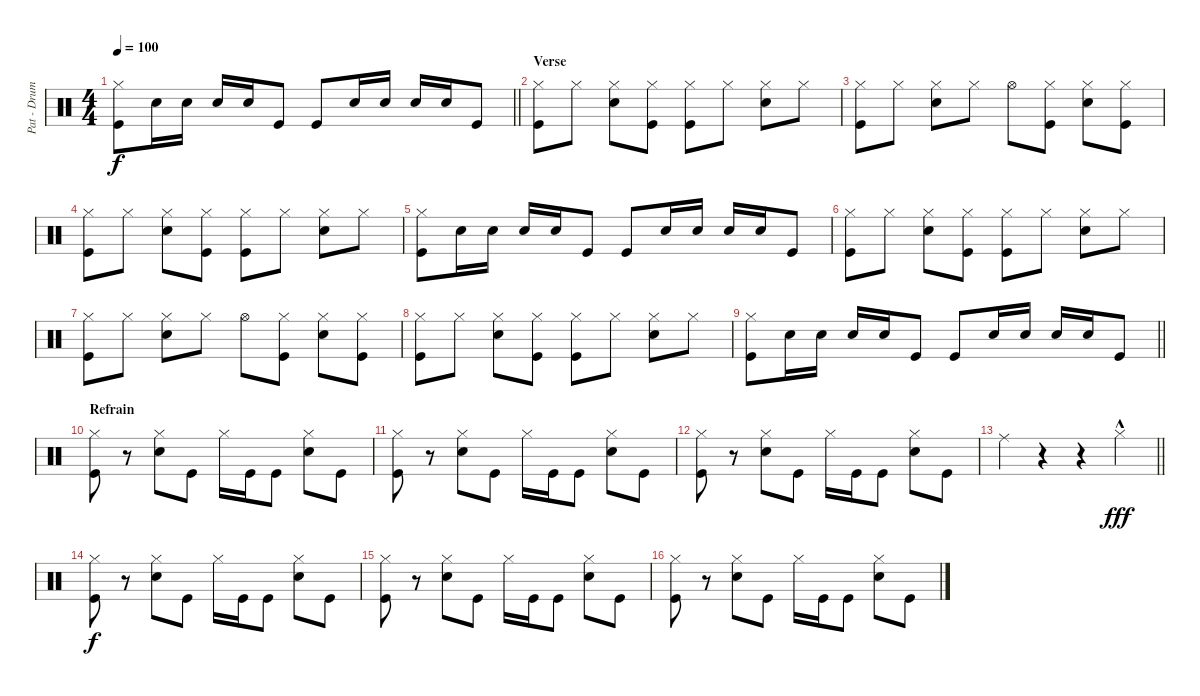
\track ("Pat - Drums" "Pat - Drum") {instrument percussion}
\staff {score}
\articulation defaults
\ts (4 4)
\tempo 100
\clef neutral
\barLineRight lightlight
\ks c
("Hi-Hat (closed)" "Kick (hit)").8{dy f} "Electric Snare (hit)".16 "Electric Snare (hit)".16 "Electric Snare (hit)".16 "Electric Snare (hit)".16 "Kick (hit)".8 "Kick (hit)".8 "Electric Snare (hit)".16 "Electric Snare (hit)".16 "Electric Snare (hit)".16 "Electric Snare (hit)".16 "Kick (hit)".8 |
\section ("" "Verse")
("Hi-Hat (closed)" "Kick (hit)").8 "Hi-Hat (closed)".8 ("Hi-Hat (closed)" "Electric Snare (hit)").8 ("Hi-Hat (closed)" "Kick (hit)").8 ("Hi-Hat (closed)" "Kick (hit)").8 "Hi-Hat (closed)".8 ("Hi-Hat (closed)" "Electric Snare (hit)").8 "Hi-Hat (closed)".8 |
("Hi-Hat (closed)" "Kick (hit)").8 "Hi-Hat (closed)".8 ("Hi-Hat (closed)" "Electric Snare (hit)").8 "Hi-Hat (closed)".8 "Hi-Hat (open)".8 ("Hi-Hat (closed)" "Kick (hit)").8 ("Hi-Hat (closed)" "Electric Snare (hit)").8 ("Hi-Hat (closed)" "Kick (hit)").8 |
("Hi-Hat (closed)" "Kick (hit)").8 "Hi-Hat (closed)".8 ("Hi-Hat (closed)" "Electric Snare (hit)").8 ("Hi-Hat (closed)" "Kick (hit)").8 ("Hi-Hat (closed)" "Kick (hit)").8 "Hi-Hat (closed)".8 ("Hi-Hat (closed)" "Electric Snare (hit)").8 "Hi-Hat (closed)".8 |
("Hi-Hat (closed)" "Kick (hit)").8 "Electric Snare (hit)".16 "Electric Snare (hit)".16 "Electric Snare (hit)".16 "Electric Snare (hit)".16 "Kick (hit)".8 "Kick (hit)".8 "Electric Snare (hit)".16 "Electric Snare (hit)".16 "Electric Snare (hit)".16 "Electric Snare (hit)".16 "Kick (hit)".8 |
("Hi-Hat (closed)" "Kick (hit)").8 "Hi-Hat (closed)".8 ("Hi-Hat (closed)" "Electric Snare (hit)").8 ("Hi-Hat (closed)" "Kick (hit)").8 ("Hi-Hat (closed)" "Kick (hit)").8 "Hi-Hat (closed)".8 ("Hi-Hat (closed)" "Electric Snare (hit)").8 "Hi-Hat (closed)".8 |
("Hi-Hat (closed)" "Kick (hit)").8 "Hi-Hat (closed)".8 ("Hi-Hat (closed)" "Electric Snare (hit)").8 "Hi-Hat (closed)".8 "Hi-Hat (open)".8 ("Hi-Hat (closed)" "Kick (hit)").8 ("Hi-Hat (closed)" "Electric Snare (hit)").8 ("Hi-Hat (closed)" "Kick (hit)").8 |
("Hi-Hat (closed)" "Kick (hit)").8 "Hi-Hat (closed)".8 ("Hi-Hat (closed)" "Electric Snare (hit)").8 ("Hi-Hat (closed)" "Kick (hit)").8 ("Hi-Hat (closed)" "Kick (hit)").8 "Hi-Hat (closed)".8 ("Hi-Hat (closed)" "Electric Snare (hit)").8 "Hi-Hat (closed)".8 |
\barLineRight lightlight
("Hi-Hat (closed)" "Kick (hit)").8 "Electric Snare (hit)".16 "Electric Snare (hit)".16 "Electric Snare (hit)".16 "Electric Snare (hit)".16 "Kick (hit)".8 "Kick (hit)".8 "Electric Snare (hit)".16 "Electric Snare (hit)".16 "Electric Snare (hit)".16 "Electric Snare (hit)".16 "Kick (hit)".8 |
\section ("" "Refrain")
("Hi-Hat (closed)" "Kick (hit)").8 r.8 ("Hi-Hat (closed)" "Electric Snare (hit)").8 "Kick (hit)".8 "Hi-Hat (closed)".16 "Kick (hit)".16 "Kick (hit)".8 ("Hi-Hat (closed)" "Electric Snare (hit)").8 "Kick (hit)".8 |
("Hi-Hat (closed)" "Kick (hit)").8 r.8 ("Hi-Hat (closed)" "Electric Snare (hit)").8 "Kick (hit)".8 "Hi-Hat (closed)".16 "Kick (hit)".16 "Kick (hit)".8 ("Hi-Hat (closed)" "Electric Snare (hit)").8 "Kick (hit)".8 |
("Hi-Hat (closed)" "Kick (hit)").8 r.8 ("Hi-Hat (closed)" "Electric Snare (hit)").8 "Kick (hit)".8 "Hi-Hat (closed)".16 "Kick (hit)".16 "Kick (hit)".8 ("Hi-Hat (closed)" "Electric Snare (hit)").8 "Kick (hit)".8 |
\barLineRight lightlight "Ride (middle)".4
r.4 r.4 "Hi-Hat (closed)"{hac}.4{dy fff} |
("Hi-Hat (closed)" "Kick (hit)").8{dy f} r.8 ("Hi-Hat (closed)" "Electric Snare (hit)").8 "Kick (hit)".8 "Hi-Hat (closed)".16 "Kick (hit)".16 "Kick (hit)".8 ("Hi-Hat (closed)" "Electric Snare (hit)").8 "Kick (hit)".8 |
("Hi-Hat (closed)" "Kick (hit)").8 r.8 ("Hi-Hat (closed)" "Electric Snare (hit)").8 "Kick (hit)".8 "Hi-Hat (closed)".16 "Kick (hit)".16 "Kick (hit)".8 ("Hi-Hat (closed)" "Electric Snare (hit)").8 "Kick (hit)".8 |
("Hi-Hat (closed)" "Kick (hit)").8 r.8 ("Hi-Hat (closed)" "Electric Snare (hit)").8 "Kick (hit)".8 "Hi-Hat (closed)".16 "Kick (hit)".16 "Kick (hit)".8 ("Hi-Hat (closed)" "Electric Snare (hit)").8 "Kick (hit)".8
